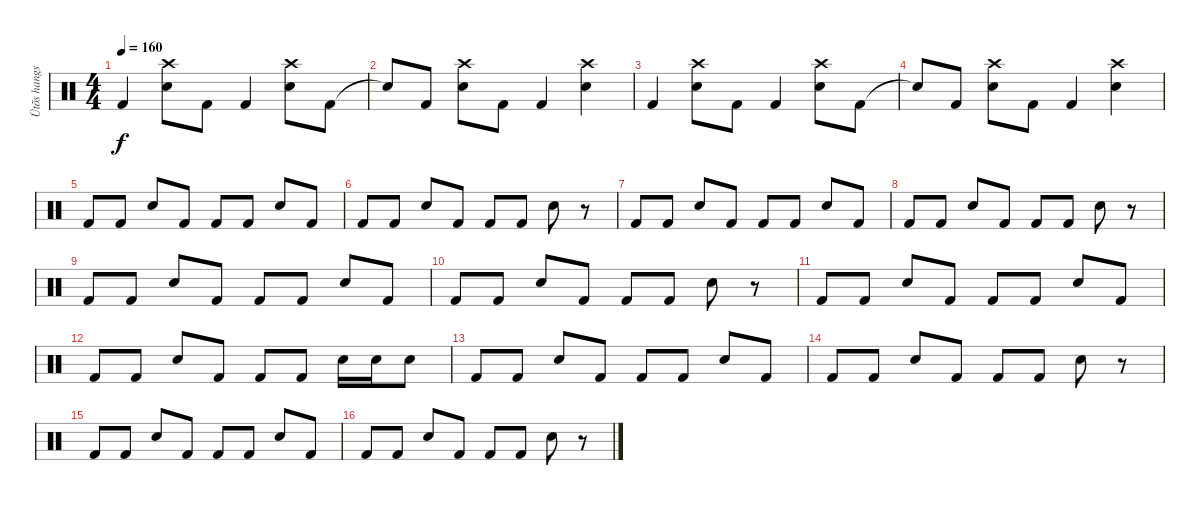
\track ("Ütõs hangszer" "Ütõs hangs") {instrument percussion}
\staff {score}
\articulation defaults
\ts (4 4)
\tempo 160
\clef neutral
\ks c "Kick (hit) 2".4{dy f}
("Crash high (hit)" "Electric Snare (hit)").8 "Kick (hit) 2".8 "Kick (hit) 2".4 ("Crash high (hit)" "Electric Snare (hit)").8 "Kick (hit) 2".8 |
"Snare (hit)"{t}.8 "Kick (hit) 2".8 ("Crash high (hit)" "Electric Snare (hit)").8 "Kick (hit) 2".8 "Kick (hit) 2".4 ("Crash high (hit)" "Electric Snare (hit)").4 |
"Kick (hit) 2".4 ("Crash high (hit)" "Electric Snare (hit)").8 "Kick (hit) 2".8 "Kick (hit) 2".4 ("Crash high (hit)" "Electric Snare (hit)").8 "Kick (hit) 2".8 |
"Snare (hit)"{t}.8 "Kick (hit) 2".8 ("Crash high (hit)" "Electric Snare (hit)").8 "Kick (hit) 2".8 "Kick (hit) 2".4 ("Crash high (hit)" "Electric Snare (hit)").4 |
"Kick (hit) 2".8 "Kick (hit) 2".8 "Electric Snare (hit)".8 "Kick (hit) 2".8 "Kick (hit) 2".8 "Kick (hit) 2".8 "Electric Snare (hit)".8 "Kick (hit) 2".8 |
"Kick (hit) 2".8 "Kick (hit) 2".8 "Electric Snare (hit)".8 "Kick (hit) 2".8 "Kick (hit) 2".8 "Kick (hit) 2".8 "Electric Snare (hit)".8 r.8 |
"Kick (hit) 2".8 "Kick (hit) 2".8 "Electric Snare (hit)".8 "Kick (hit) 2".8 "Kick (hit) 2".8 "Kick (hit) 2".8 "Electric Snare (hit)".8 "Kick (hit) 2".8 |
"Kick (hit) 2".8 "Kick (hit) 2".8 "Electric Snare (hit)".8 "Kick (hit) 2".8 "Kick (hit) 2".8 "Kick (hit) 2".8 "Electric Snare (hit)".8 r.8 |
"Kick (hit) 2".8 "Kick (hit) 2".8 "Electric Snare (hit)".8 "Kick (hit) 2".8 "Kick (hit) 2".8 "Kick (hit) 2".8 "Electric Snare (hit)".8 "Kick (hit) 2".8 |
"Kick (hit) 2".8 "Kick (hit) 2".8 "Electric Snare (hit)".8 "Kick (hit) 2".8 "Kick (hit) 2".8 "Kick (hit) 2".8 "Electric Snare (hit)".8 r.8 |
"Kick (hit) 2".8 "Kick (hit) 2".8 "Electric Snare (hit)".8 "Kick (hit) 2".8 "Kick (hit) 2".8 "Kick (hit) 2".8 "Electric Snare (hit)".8 "Kick (hit) 2".8 |
"Kick (hit) 2".8 "Kick (hit) 2".8 "Electric Snare (hit)".8 "Kick (hit) 2".8 "Kick (hit) 2".8 "Kick (hit) 2".8 "Electric Snare (hit)".16 "Electric Snare (hit)".16 "Electric Snare (hit)".8 |
"Kick (hit) 2".8 "Kick (hit) 2".8 "Electric Snare (hit)".8 "Kick (hit) 2".8 "Kick (hit) 2".8 "Kick (hit) 2".8 "Electric Snare (hit)".8 "Kick (hit) 2".8 |
"Kick (hit) 2".8 "Kick (hit) 2".8 "Electric Snare (hit)".8 "Kick (hit) 2".8 "Kick (hit) 2".8 "Kick (hit) 2".8 "Electric Snare (hit)".8 r.8 |
"Kick (hit) 2".8 "Kick (hit) 2".8 "Electric Snare (hit)".8 "Kick (hit) 2".8 "Kick (hit) 2".8 "Kick (hit) 2".8 "Electric Snare (hit)".8 "Kick (hit) 2".8 |
"Kick (hit) 2".8 "Kick (hit) 2".8 "Electric Snare (hit)".8 "Kick (hit) 2".8 "Kick (hit) 2".8 "Kick (hit) 2".8 "Electric Snare (hit)".8 r.8
